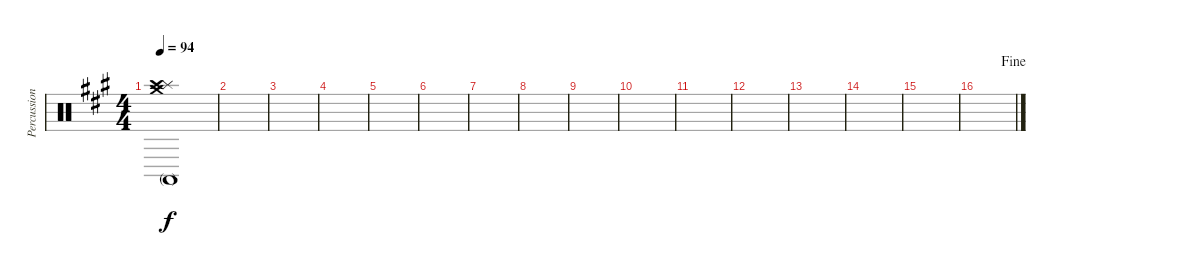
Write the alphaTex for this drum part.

\track ("Percussion" "Percussion") {instrument percussion}
\staff {score}
\articulation defaults
\ts (4 4)
\tempo 94
\clef neutral
\ks a
("Crash medium (hit)" "Splash (hit)" "Conga high (mute)" "Crash high (hit)").1{dy f} |
|
|
|
|
|
|
|
|
|
|
|
|
|
|
\jump fine
